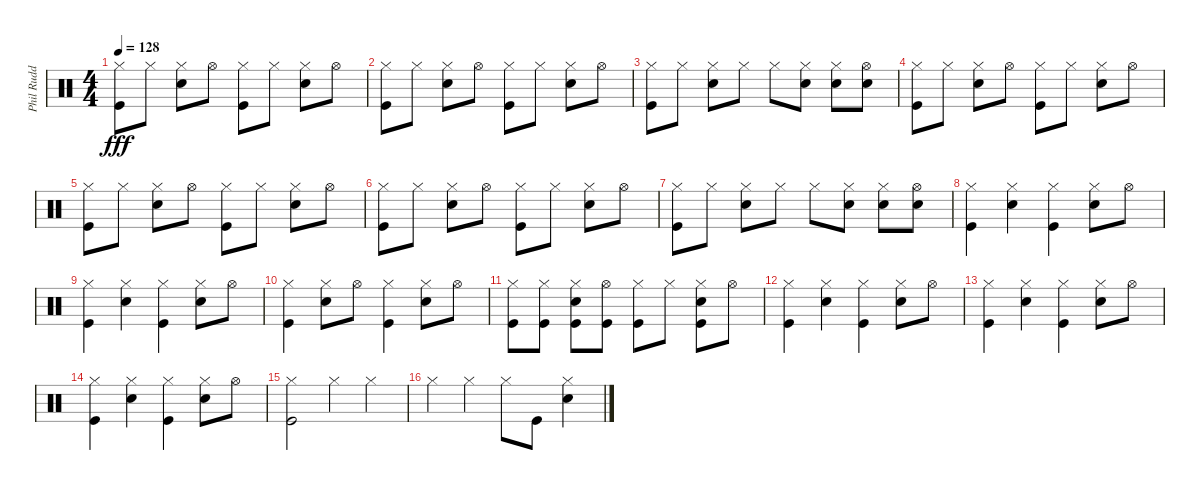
\track ("Phil Rudd" "Phil Rudd") {instrument percussion}
\staff {score}
\articulation defaults
\ts (4 4)
\tempo 128
\clef neutral
\ks c
("Hi-Hat (closed)" "Kick (hit)").8{dy fff} "Hi-Hat (closed)".8 ("Hi-Hat (closed)" "Snare (hit) 2").8 "Hi-Hat (open)".8 ("Hi-Hat (closed)" "Kick (hit)").8 "Hi-Hat (closed)".8 ("Hi-Hat (closed)" "Snare (hit) 2").8 "Hi-Hat (open)".8 |
("Hi-Hat (closed)" "Kick (hit)").8 "Hi-Hat (closed)".8 ("Hi-Hat (closed)" "Snare (hit) 2").8 "Hi-Hat (open)".8 ("Hi-Hat (closed)" "Kick (hit)").8 "Hi-Hat (closed)".8 ("Hi-Hat (closed)" "Snare (hit) 2").8 "Hi-Hat (open)".8 |
("Hi-Hat (closed)" "Kick (hit)").8 "Hi-Hat (closed)".8 ("Hi-Hat (closed)" "Snare (hit) 2").8 "Hi-Hat (closed)".8 "Hi-Hat (closed)".8 ("Hi-Hat (closed)" "Snare (hit) 2").8 ("Hi-Hat (closed)" "Snare (hit) 2").8 ("Hi-Hat (open)" "Snare (hit) 2").8 |
("Hi-Hat (closed)" "Kick (hit)").8 "Hi-Hat (closed)".8 ("Hi-Hat (closed)" "Snare (hit) 2").8 "Hi-Hat (open)".8 ("Hi-Hat (closed)" "Kick (hit)").8 "Hi-Hat (closed)".8 ("Hi-Hat (closed)" "Snare (hit) 2").8 "Hi-Hat (open)".8 |
("Hi-Hat (closed)" "Kick (hit)").8 "Hi-Hat (closed)".8 ("Hi-Hat (closed)" "Snare (hit) 2").8 "Hi-Hat (open)".8 ("Hi-Hat (closed)" "Kick (hit)").8 "Hi-Hat (closed)".8 ("Hi-Hat (closed)" "Snare (hit) 2").8 "Hi-Hat (open)".8 |
("Hi-Hat (closed)" "Kick (hit)").8 "Hi-Hat (closed)".8 ("Hi-Hat (closed)" "Snare (hit) 2").8 "Hi-Hat (open)".8 ("Hi-Hat (closed)" "Kick (hit)").8 "Hi-Hat (closed)".8 ("Hi-Hat (closed)" "Snare (hit) 2").8 "Hi-Hat (open)".8 |
("Hi-Hat (closed)" "Kick (hit)").8 "Hi-Hat (closed)".8 ("Hi-Hat (closed)" "Snare (hit) 2").8 "Hi-Hat (closed)".8 "Hi-Hat (closed)".8 ("Hi-Hat (closed)" "Snare (hit) 2").8 ("Hi-Hat (closed)" "Snare (hit) 2").8 ("Hi-Hat (open)" "Snare (hit) 2").8 |
("Hi-Hat (closed)" "Kick (hit)").4 ("Hi-Hat (closed)" "Snare (hit) 2").4 ("Hi-Hat (closed)" "Kick (hit)").4 ("Hi-Hat (closed)" "Snare (hit) 2").8 "Hi-Hat (open)".8 |
("Hi-Hat (closed)" "Kick (hit)").4 ("Hi-Hat (closed)" "Snare (hit) 2").4 ("Hi-Hat (closed)" "Kick (hit)").4 ("Hi-Hat (closed)" "Snare (hit) 2").8 "Hi-Hat (open)".8 |
("Hi-Hat (closed)" "Kick (hit)").4 ("Hi-Hat (closed)" "Snare (hit) 2").8 "Hi-Hat (open)".8 ("Hi-Hat (closed)" "Kick (hit)").4 ("Hi-Hat (closed)" "Snare (hit) 2").8 "Hi-Hat (open)".8 |
("Hi-Hat (closed)" "Kick (hit)").8 ("Hi-Hat (closed)" "Kick (hit)").8 ("Hi-Hat (closed)" "Kick (hit)" "Snare (hit) 2").8 ("Hi-Hat (open)" "Kick (hit)").8 ("Hi-Hat (closed)" "Kick (hit)").8 "Hi-Hat (closed)".8 ("Hi-Hat (closed)" "Kick (hit)" "Snare (hit) 2").8 "Hi-Hat (open)".8 |
("Hi-Hat (closed)" "Kick (hit)").4 ("Hi-Hat (closed)" "Snare (hit) 2").4 ("Hi-Hat (closed)" "Kick (hit)").4 ("Hi-Hat (closed)" "Snare (hit) 2").8 "Hi-Hat (open)".8 |
("Hi-Hat (closed)" "Kick (hit)").4 ("Hi-Hat (closed)" "Snare (hit) 2").4 ("Hi-Hat (closed)" "Kick (hit)").4 ("Hi-Hat (closed)" "Snare (hit) 2").8 "Hi-Hat (open)".8 |
("Hi-Hat (closed)" "Kick (hit)").4 ("Hi-Hat (closed)" "Snare (hit) 2").4 ("Hi-Hat (closed)" "Kick (hit)").4 ("Hi-Hat (closed)" "Snare (hit) 2").8 "Hi-Hat (open)".8 |
("Hi-Hat (closed)" "Kick (hit)").2 "Hi-Hat (closed)".4 "Hi-Hat (closed)".4 |
"Hi-Hat (closed)".4 "Hi-Hat (closed)".4 "Hi-Hat (closed)".8 "Kick (hit)".8 ("Hi-Hat (closed)" "Snare (hit) 2").4
